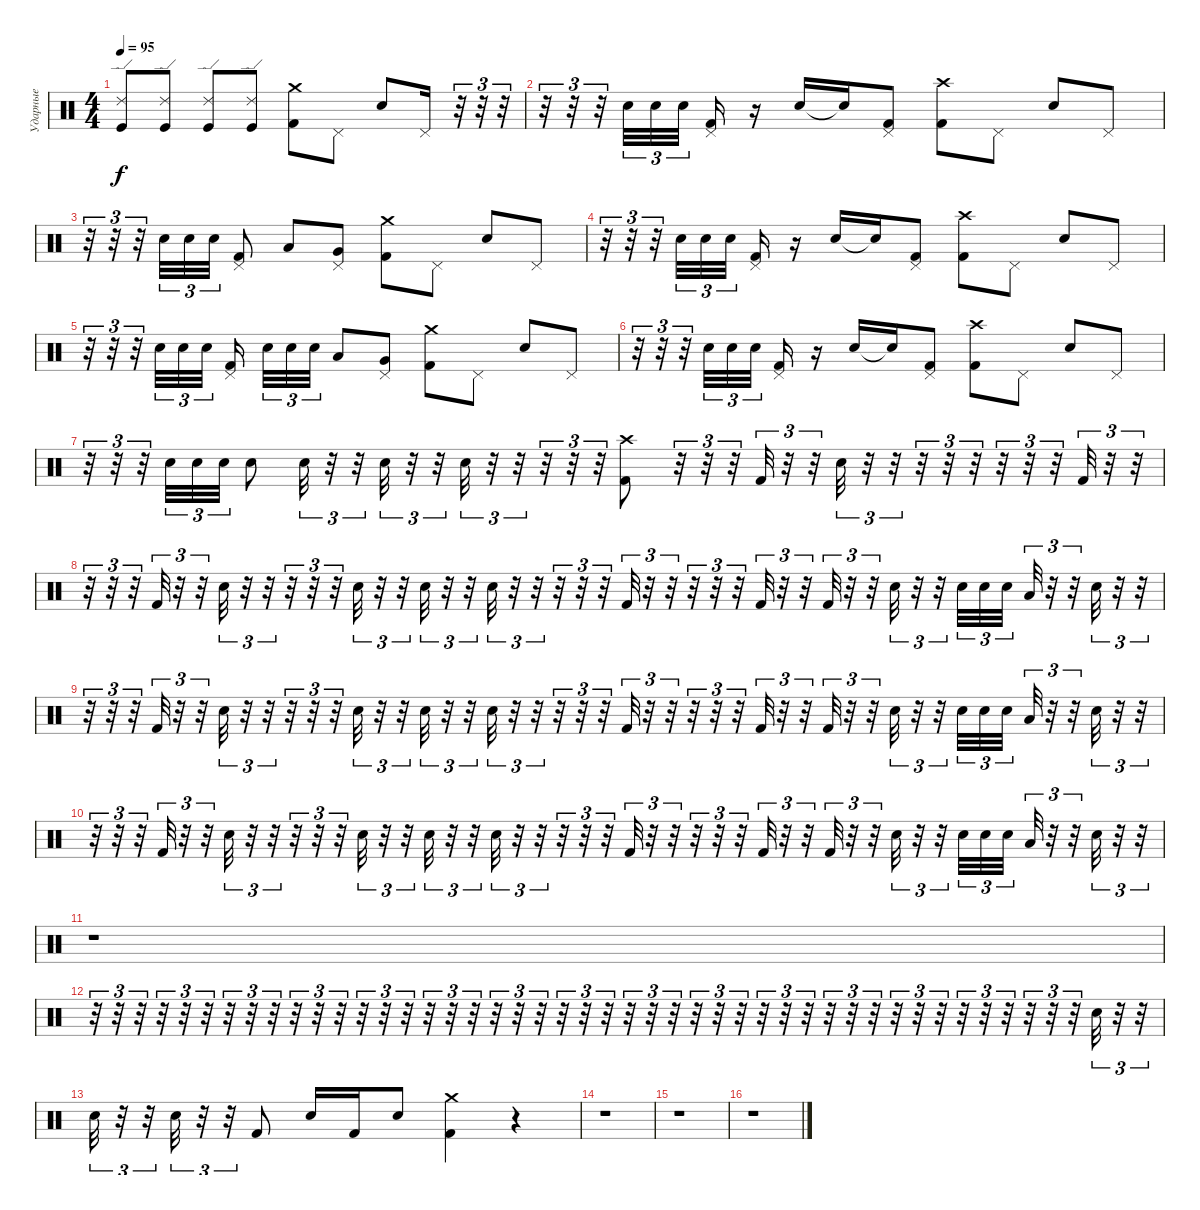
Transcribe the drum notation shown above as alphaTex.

\track ("Ударные" "Ударные") {instrument percussion}
\staff {score}
\articulation defaults
\ts (4 4)
\tempo 95
\clef neutral
\ks c
("Ride (edge) 2" "Kick (hit)").8{dy f} ("Ride (edge) 2" "Kick (hit)").8 ("Ride (edge) 2" "Kick (hit)").8 ("Ride (edge) 2" "Kick (hit)").8 ("Crash medium (hit)" "Kick (hit) 2").8 "Pedal Hi-Hat (hit)".8 "Snare (hit) 2".8 "Pedal Hi-Hat (hit)".16 r.32{tu (3 2)} r.32{tu (3 2)} r.32{tu (3 2)} |
r.32{tu (3 2)} r.32{tu (3 2)} r.32{tu (3 2)} "Electric Snare (hit)".32{tu (3 2)} "Electric Snare (hit)".32{tu (3 2)} "Electric Snare (hit)".32{tu (3 2) beam splitsecondary} ("Pedal Hi-Hat (hit)" "Kick (hit) 2").16 r.16 "Snare (hit) 2".16 "Snare (hit)"{t}.16 ("Pedal Hi-Hat (hit)" "Kick (hit) 2").8 ("Crash high (hit)" "Kick (hit) 2").8 "Pedal Hi-Hat (hit)".8 "Snare (hit) 2".8 "Pedal Hi-Hat (hit)".8 |
r.32{tu (3 2)} r.32{tu (3 2)} r.32{tu (3 2)} "Electric Snare (hit)".32{tu (3 2)} "Electric Snare (hit)".32{tu (3 2)} "Electric Snare (hit)".32{tu (3 2)} ("Pedal Hi-Hat (hit)" "Kick (hit) 2").8 "Low Floor Tom (hit)".8 ("Pedal Hi-Hat (hit)" "Very Low Tom (hit)").8 ("Crash medium (hit)" "Kick (hit) 2").8 "Pedal Hi-Hat (hit)".8 "Snare (hit) 2".8 "Pedal Hi-Hat (hit)".8 |
r.32{tu (3 2)} r.32{tu (3 2)} r.32{tu (3 2)} "Electric Snare (hit)".32{tu (3 2)} "Electric Snare (hit)".32{tu (3 2)} "Electric Snare (hit)".32{tu (3 2) beam splitsecondary} ("Pedal Hi-Hat (hit)" "Kick (hit) 2").16 r.16 "Snare (hit) 2".16 "Snare (hit)"{t}.16 ("Pedal Hi-Hat (hit)" "Kick (hit) 2").8 ("Crash high (hit)" "Kick (hit) 2").8 "Pedal Hi-Hat (hit)".8 "Snare (hit) 2".8 "Pedal Hi-Hat (hit)".8 |
r.32{tu (3 2)} r.32{tu (3 2)} r.32{tu (3 2)} "Electric Snare (hit)".32{tu (3 2)} "Electric Snare (hit)".32{tu (3 2)} "Electric Snare (hit)".32{tu (3 2) beam splitsecondary} ("Pedal Hi-Hat (hit)" "Kick (hit) 2").16{beam splitsecondary} "Electric Snare (hit)".32{tu (3 2)} "Electric Snare (hit)".32{tu (3 2)} "Electric Snare (hit)".32{tu (3 2)} "Low Floor Tom (hit)".8 ("Pedal Hi-Hat (hit)" "Very Low Tom (hit)").8 ("Crash medium (hit)" "Kick (hit) 2").8 "Pedal Hi-Hat (hit)".8 "Snare (hit) 2".8 "Pedal Hi-Hat (hit)".8 |
r.32{tu (3 2)} r.32{tu (3 2)} r.32{tu (3 2)} "Electric Snare (hit)".32{tu (3 2)} "Electric Snare (hit)".32{tu (3 2)} "Electric Snare (hit)".32{tu (3 2) beam splitsecondary} ("Pedal Hi-Hat (hit)" "Kick (hit) 2").16 r.16 "Snare (hit) 2".16 "Snare (hit)"{t}.16 ("Pedal Hi-Hat (hit)" "Kick (hit) 2").8 ("Crash high (hit)" "Kick (hit) 2").8 "Pedal Hi-Hat (hit)".8 "Snare (hit) 2".8 "Pedal Hi-Hat (hit)".8 |
r.32{tu (3 2)} r.32{tu (3 2)} r.32{tu (3 2)} "Electric Snare (hit)".32{tu (3 2)} "Electric Snare (hit)".32{tu (3 2)} "Electric Snare (hit)".32{tu (3 2)} "Electric Snare (hit)".8 "Snare (hit) 2".32{tu (3 2)} r.32{tu (3 2)} r.32{tu (3 2)} "Electric Snare (hit)".32{tu (3 2)} r.32{tu (3 2)} r.32{tu (3 2)} "Snare (hit) 2".32{tu (3 2)} r.32{tu (3 2)} r.32{tu (3 2)} r.32{tu (3 2)} r.32{tu (3 2)} r.32{tu (3 2)} ("Crash high (hit)" "Kick (hit) 2").8 r.32{tu (3 2)} r.32{tu (3 2)} r.32{tu (3 2)} "Kick (hit) 2".32{tu (3 2)} r.32{tu (3 2)} r.32{tu (3 2)} "Snare (hit) 2".32{tu (3 2)} r.32{tu (3 2)} r.32{tu (3 2)} r.32{tu (3 2)} r.32{tu (3 2)} r.32{tu (3 2)} r.32{tu (3 2)} r.32{tu (3 2)} r.32{tu (3 2)} "Kick (hit) 2".32{tu (3 2)} r.32{tu (3 2)} r.32{tu (3 2)} |
r.32{tu (3 2)} r.32{tu (3 2)} r.32{tu (3 2)} "Kick (hit) 2".32{tu (3 2)} r.32{tu (3 2)} r.32{tu (3 2)} "Snare (hit) 2".32{tu (3 2)} r.32{tu (3 2)} r.32{tu (3 2)} r.32{tu (3 2)} r.32{tu (3 2)} r.32{tu (3 2)} "Snare (hit) 2".32{tu (3 2)} r.32{tu (3 2)} r.32{tu (3 2)} "Electric Snare (hit)".32{tu (3 2)} r.32{tu (3 2)} r.32{tu (3 2)} "Snare (hit) 2".32{tu (3 2)} r.32{tu (3 2)} r.32{tu (3 2)} r.32{tu (3 2)} r.32{tu (3 2)} r.32{tu (3 2)} "Kick (hit) 2".32{tu (3 2)} r.32{tu (3 2)} r.32{tu (3 2)} r.32{tu (3 2)} r.32{tu (3 2)} r.32{tu (3 2)} "Kick (hit) 2".32{tu (3 2)} r.32{tu (3 2)} r.32{tu (3 2)} "Kick (hit) 2".32{tu (3 2)} r.32{tu (3 2)} r.32{tu (3 2)} "Snare (hit) 2".32{tu (3 2)} r.32{tu (3 2)} r.32{tu (3 2)} "Electric Snare (hit)".32{tu (3 2)} "Electric Snare (hit)".32{tu (3 2)} "Electric Snare (hit)".32{tu (3 2) beam splitsecondary} "Low Floor Tom (hit)".32{tu (3 2)} r.32{tu (3 2)} r.32{tu (3 2)} "Snare (hit) 2".32{tu (3 2)} r.32{tu (3 2)} r.32{tu (3 2)} |
r.32{tu (3 2)} r.32{tu (3 2)} r.32{tu (3 2)} "Kick (hit) 2".32{tu (3 2)} r.32{tu (3 2)} r.32{tu (3 2)} "Snare (hit) 2".32{tu (3 2)} r.32{tu (3 2)} r.32{tu (3 2)} r.32{tu (3 2)} r.32{tu (3 2)} r.32{tu (3 2)} "Snare (hit) 2".32{tu (3 2)} r.32{tu (3 2)} r.32{tu (3 2)} "Snare (hit) 2".32{tu (3 2)} r.32{tu (3 2)} r.32{tu (3 2)} "Snare (hit) 2".32{tu (3 2)} r.32{tu (3 2)} r.32{tu (3 2)} r.32{tu (3 2)} r.32{tu (3 2)} r.32{tu (3 2)} "Kick (hit) 2".32{tu (3 2)} r.32{tu (3 2)} r.32{tu (3 2)} r.32{tu (3 2)} r.32{tu (3 2)} r.32{tu (3 2)} "Kick (hit) 2".32{tu (3 2)} r.32{tu (3 2)} r.32{tu (3 2)} "Kick (hit) 2".32{tu (3 2)} r.32{tu (3 2)} r.32{tu (3 2)} "Snare (hit) 2".32{tu (3 2)} r.32{tu (3 2)} r.32{tu (3 2)} "Electric Snare (hit)".32{tu (3 2)} "Electric Snare (hit)".32{tu (3 2)} "Electric Snare (hit)".32{tu (3 2) beam splitsecondary} "Low Floor Tom (hit)".32{tu (3 2)} r.32{tu (3 2)} r.32{tu (3 2)} "Snare (hit) 2".32{tu (3 2)} r.32{tu (3 2)} r.32{tu (3 2)} |
r.32{tu (3 2)} r.32{tu (3 2)} r.32{tu (3 2)} "Kick (hit) 2".32{tu (3 2)} r.32{tu (3 2)} r.32{tu (3 2)} "Snare (hit) 2".32{tu (3 2)} r.32{tu (3 2)} r.32{tu (3 2)} r.32{tu (3 2)} r.32{tu (3 2)} r.32{tu (3 2)} "Snare (hit) 2".32{tu (3 2)} r.32{tu (3 2)} r.32{tu (3 2)} "Electric Snare (hit)".32{tu (3 2)} r.32{tu (3 2)} r.32{tu (3 2)} "Snare (hit) 2".32{tu (3 2)} r.32{tu (3 2)} r.32{tu (3 2)} r.32{tu (3 2)} r.32{tu (3 2)} r.32{tu (3 2)} "Kick (hit) 2".32{tu (3 2)} r.32{tu (3 2)} r.32{tu (3 2)} r.32{tu (3 2)} r.32{tu (3 2)} r.32{tu (3 2)} "Kick (hit) 2".32{tu (3 2)} r.32{tu (3 2)} r.32{tu (3 2)} "Kick (hit) 2".32{tu (3 2)} r.32{tu (3 2)} r.32{tu (3 2)} "Snare (hit) 2".32{tu (3 2)} r.32{tu (3 2)} r.32{tu (3 2)} "Electric Snare (hit)".32{tu (3 2)} "Electric Snare (hit)".32{tu (3 2)} "Electric Snare (hit)".32{tu (3 2) beam splitsecondary} "Low Floor Tom (hit)".32{tu (3 2)} r.32{tu (3 2)} r.32{tu (3 2)} "Snare (hit) 2".32{tu (3 2)} r.32{tu (3 2)} r.32{tu (3 2)} |
r.1 |
r.32{tu (3 2)} r.32{tu (3 2)} r.32{tu (3 2)} r.32{tu (3 2)} r.32{tu (3 2)} r.32{tu (3 2)} r.32{tu (3 2)} r.32{tu (3 2)} r.32{tu (3 2)} r.32{tu (3 2)} r.32{tu (3 2)} r.32{tu (3 2)} r.32{tu (3 2)} r.32{tu (3 2)} r.32{tu (3 2)} r.32{tu (3 2)} r.32{tu (3 2)} r.32{tu (3 2)} r.32{tu (3 2)} r.32{tu (3 2)} r.32{tu (3 2)} r.32{tu (3 2)} r.32{tu (3 2)} r.32{tu (3 2)} r.32{tu (3 2)} r.32{tu (3 2)} r.32{tu (3 2)} r.32{tu (3 2)} r.32{tu (3 2)} r.32{tu (3 2)} r.32{tu (3 2)} r.32{tu (3 2)} r.32{tu (3 2)} r.32{tu (3 2)} r.32{tu (3 2)} r.32{tu (3 2)} r.32{tu (3 2)} r.32{tu (3 2)} r.32{tu (3 2)} r.32{tu (3 2)} r.32{tu (3 2)} r.32{tu (3 2)} r.32{tu (3 2)} r.32{tu (3 2)} r.32{tu (3 2)} "Snare (hit) 2".32{tu (3 2)} r.32{tu (3 2)} r.32{tu (3 2)} |
"Electric Snare (hit)".32{tu (3 2)} r.32{tu (3 2)} r.32{tu (3 2)} "Electric Snare (hit)".32{tu (3 2)} r.32{tu (3 2)} r.32{tu (3 2)} "Kick (hit) 2".8 "Snare (hit) 2".16 "Kick (hit) 2".16 "Electric Snare (hit)".8 ("Crash medium (hit)" "Kick (hit) 2").4 r.4 |
r.1 |
r.1 |
r.1
